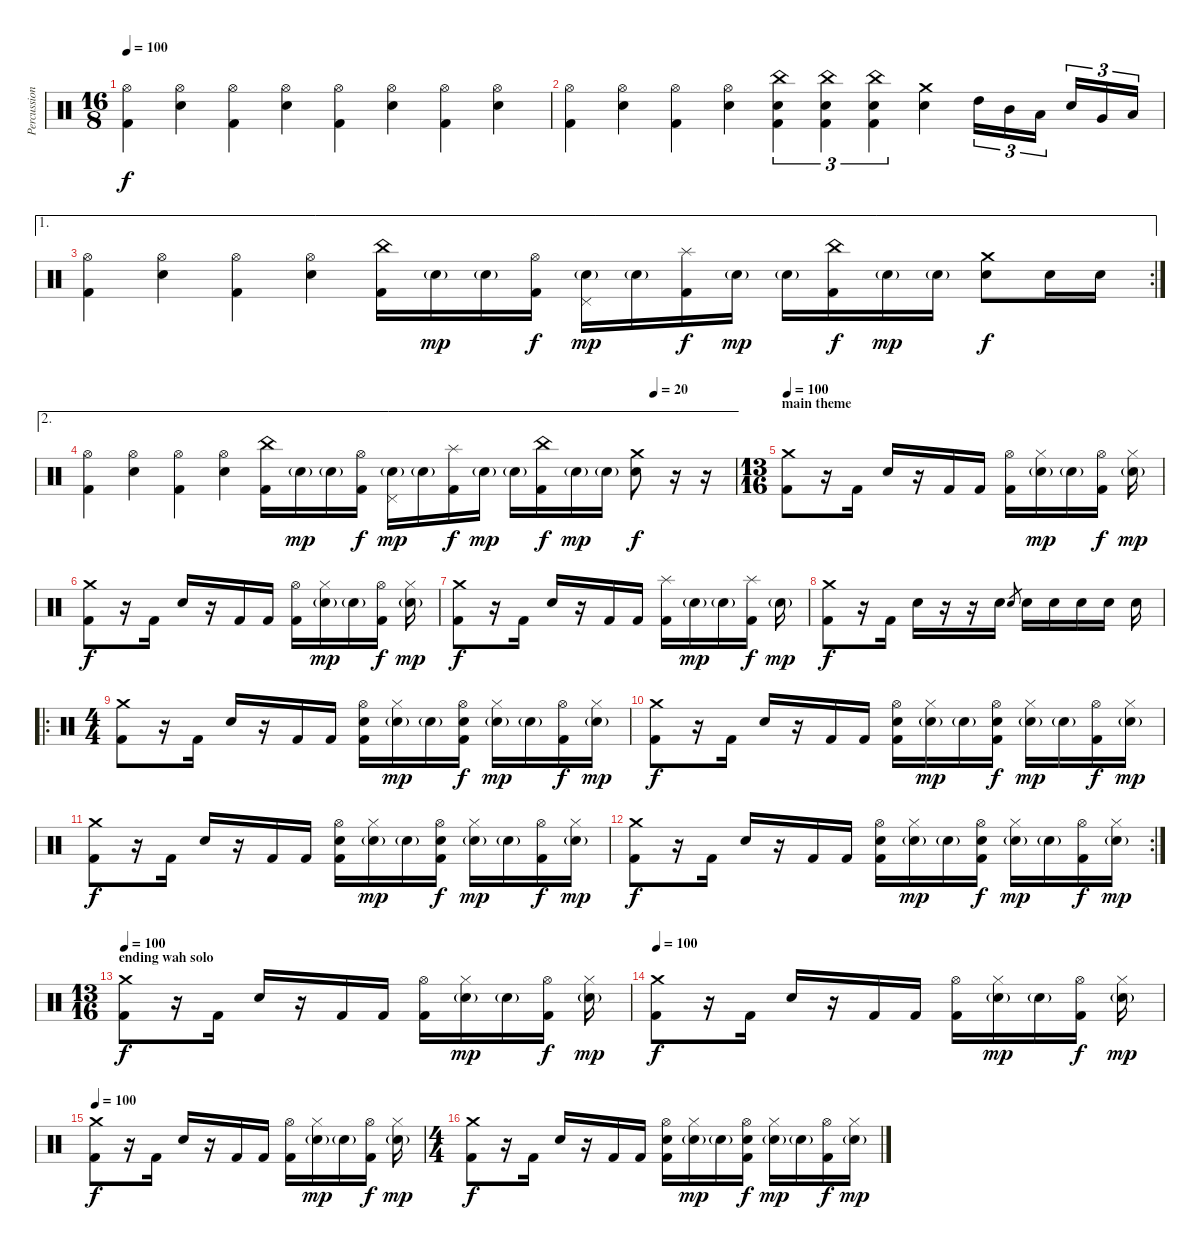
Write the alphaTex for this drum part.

\track ("Percussions" "Percussion") {instrument percussion}
\staff {score}
\articulation defaults
\ts (16 8)
\tempo 100
\clef neutral
\ks c
("Hi-Hat (open)" "Kick (hit) 2").4{dy f} ("Hi-Hat (open)" "Electric Snare (hit)").4 ("Hi-Hat (open)" "Kick (hit) 2").4 ("Hi-Hat (open)" "Electric Snare (hit)").4 ("Hi-Hat (open)" "Kick (hit) 2").4 ("Hi-Hat (open)" "Electric Snare (hit)").4 ("Hi-Hat (open)" "Kick (hit) 2").4 ("Hi-Hat (open)" "Electric Snare (hit)").4 |
("Hi-Hat (open)" "Kick (hit) 2").4 ("Hi-Hat (open)" "Electric Snare (hit)").4 ("Hi-Hat (open)" "Kick (hit) 2").4 ("Hi-Hat (open)" "Electric Snare (hit)").4 ("China (hit)" "Electric Snare (hit)" "Kick (hit) 2").4{tu (3 2)} ("China (hit)" "Electric Snare (hit)" "Kick (hit) 2").4{tu (3 2)} ("China (hit)" "Electric Snare (hit)" "Kick (hit) 2").4{tu (3 2)} ("Crash medium (hit)" "Electric Snare (hit)").4 "High Tom (hit)".16{tu (3 2)} "Mid Tom (hit)".16{tu (3 2)} "Low Tom (hit)".16{tu (3 2)} "Electric Snare (hit)".16{tu (3 2)} "Very Low Tom (hit)".16{tu (3 2)} "Low Floor Tom (hit)".16{tu (3 2)} |
\ae 1
\rc 2
("Hi-Hat (open)" "Kick (hit) 2").4 ("Hi-Hat (open)" "Electric Snare (hit)").4 ("Hi-Hat (open)" "Kick (hit) 2").4 ("Hi-Hat (open)" "Electric Snare (hit)").4 ("China (hit)" "Kick (hit) 2").16 "Electric Snare (hit)"{g}.16{dy mp} "Electric Snare (hit)"{g}.16 ("Hi-Hat (open)" "Kick (hit) 2").16{dy f} ("Pedal Hi-Hat (hit)" "Electric Snare (hit)"{g}).16{dy mp} "Electric Snare (hit)"{g}.16 ("Splash (hit)" "Kick (hit) 2").16{dy f} "Electric Snare (hit)"{g}.16{dy mp} "Electric Snare (hit)"{g}.16 ("China (hit)" "Kick (hit) 2").16{dy f} "Electric Snare (hit)"{g}.16{dy mp} "Electric Snare (hit)"{g}.16 ("Crash medium (hit)" "Electric Snare (hit)").8{dy f} "Electric Snare (hit)".16 "Electric Snare (hit)".16 |
\ae 2
\tempo (20 0.875)
("Hi-Hat (open)" "Kick (hit) 2").4 ("Hi-Hat (open)" "Electric Snare (hit)").4 ("Hi-Hat (open)" "Kick (hit) 2").4 ("Hi-Hat (open)" "Electric Snare (hit)").4 ("China (hit)" "Kick (hit) 2").16 "Electric Snare (hit)"{g}.16{dy mp} "Electric Snare (hit)"{g}.16 ("Hi-Hat (open)" "Kick (hit) 2").16{dy f} ("Pedal Hi-Hat (hit)" "Electric Snare (hit)"{g}).16{dy mp} "Electric Snare (hit)"{g}.16 ("Splash (hit)" "Kick (hit) 2").16{dy f} "Electric Snare (hit)"{g}.16{dy mp} "Electric Snare (hit)"{g}.16 ("China (hit)" "Kick (hit) 2").16{dy f} "Electric Snare (hit)"{g}.16{dy mp} "Electric Snare (hit)"{g}.16 ("Crash medium (hit)" "Electric Snare (hit)").8{dy f} r.16 r.16 |
\ts (13 16)
\section ("" "main theme")
\tempo 100
("Crash medium (hit)" "Kick (hit) 2").8 r.16 "Kick (hit) 2".16 "Electric Snare (hit)".16 r.16 "Kick (hit) 2".16 "Kick (hit) 2".16 ("Hi-Hat (open)" "Kick (hit) 2").16 ("Hi-Hat (closed)" "Electric Snare (hit)"{g}).16{dy mp} "Electric Snare (hit)"{g}.16 ("Hi-Hat (open)" "Kick (hit) 2").16{dy f} ("Hi-Hat (closed)" "Electric Snare (hit)"{g}).16{dy mp} |
("Crash medium (hit)" "Kick (hit) 2").8{dy f} r.16 "Kick (hit) 2".16 "Electric Snare (hit)".16 r.16 "Kick (hit) 2".16 "Kick (hit) 2".16 ("Hi-Hat (open)" "Kick (hit) 2").16 ("Hi-Hat (closed)" "Electric Snare (hit)"{g}).16{dy mp} "Electric Snare (hit)"{g}.16 ("Hi-Hat (open)" "Kick (hit) 2").16{dy f} ("Hi-Hat (closed)" "Electric Snare (hit)"{g}).16{dy mp} |
("Crash medium (hit)" "Kick (hit) 2").8{dy f} r.16 "Kick (hit) 2".16 "Electric Snare (hit)".16 r.16 "Kick (hit) 2".16 "Kick (hit) 2".16 ("Splash (hit)" "Kick (hit) 2").16 "Electric Snare (hit)"{g}.16{dy mp} "Electric Snare (hit)"{g}.16 ("Splash (hit)" "Kick (hit) 2").16{dy f} "Electric Snare (hit)"{g}.16{dy mp} |
("Crash medium (hit)" "Kick (hit) 2").8{dy f} r.16 "Kick (hit) 2".16 "Electric Snare (hit)".16 r.16 r.16 "Electric Snare (hit)".16 "Electric Snare (hit)".8{gr} "Electric Snare (hit)".16 "Electric Snare (hit)".16 "Electric Snare (hit)".16 "Electric Snare (hit)".16 "Electric Snare (hit)".16 |
\ro
\ts (4 4)
("Crash medium (hit)" "Kick (hit) 2").8 r.16 "Kick (hit) 2".16 "Electric Snare (hit)".16 r.16 "Kick (hit) 2".16 "Kick (hit) 2".16 ("Hi-Hat (open)" "Electric Snare (hit)" "Kick (hit) 2").16 ("Hi-Hat (closed)" "Electric Snare (hit)"{g}).16{dy mp} "Electric Snare (hit)"{g}.16 ("Hi-Hat (open)" "Electric Snare (hit)" "Kick (hit) 2").16{dy f} ("Hi-Hat (closed)" "Electric Snare (hit)"{g}).16{dy mp} "Electric Snare (hit)"{g}.16 ("Hi-Hat (open)" "Kick (hit) 2").16{dy f} ("Hi-Hat (closed)" "Electric Snare (hit)"{g}).16{dy mp} |
("Crash medium (hit)" "Kick (hit) 2").8{dy f} r.16 "Kick (hit) 2".16 "Electric Snare (hit)".16 r.16 "Kick (hit) 2".16 "Kick (hit) 2".16 ("Hi-Hat (open)" "Electric Snare (hit)" "Kick (hit) 2").16 ("Hi-Hat (closed)" "Electric Snare (hit)"{g}).16{dy mp} "Electric Snare (hit)"{g}.16 ("Hi-Hat (open)" "Electric Snare (hit)" "Kick (hit) 2").16{dy f} ("Hi-Hat (closed)" "Electric Snare (hit)"{g}).16{dy mp} "Electric Snare (hit)"{g}.16 ("Hi-Hat (open)" "Kick (hit) 2").16{dy f} ("Hi-Hat (closed)" "Electric Snare (hit)"{g}).16{dy mp} |
("Crash medium (hit)" "Kick (hit) 2").8{dy f} r.16 "Kick (hit) 2".16 "Electric Snare (hit)".16 r.16 "Kick (hit) 2".16 "Kick (hit) 2".16 ("Hi-Hat (open)" "Electric Snare (hit)" "Kick (hit) 2").16 ("Hi-Hat (closed)" "Electric Snare (hit)"{g}).16{dy mp} "Electric Snare (hit)"{g}.16 ("Hi-Hat (open)" "Electric Snare (hit)" "Kick (hit) 2").16{dy f} ("Hi-Hat (closed)" "Electric Snare (hit)"{g}).16{dy mp} "Electric Snare (hit)"{g}.16 ("Hi-Hat (open)" "Kick (hit) 2").16{dy f} ("Hi-Hat (closed)" "Electric Snare (hit)"{g}).16{dy mp} |
\rc 2
("Crash medium (hit)" "Kick (hit) 2").8{dy f} r.16 "Kick (hit) 2".16 "Electric Snare (hit)".16 r.16 "Kick (hit) 2".16 "Kick (hit) 2".16 ("Hi-Hat (open)" "Electric Snare (hit)" "Kick (hit) 2").16 ("Hi-Hat (closed)" "Electric Snare (hit)"{g}).16{dy mp} "Electric Snare (hit)"{g}.16 ("Hi-Hat (open)" "Electric Snare (hit)" "Kick (hit) 2").16{dy f} ("Hi-Hat (closed)" "Electric Snare (hit)"{g}).16{dy mp} "Electric Snare (hit)"{g}.16 ("Hi-Hat (open)" "Kick (hit) 2").16{dy f} ("Hi-Hat (closed)" "Electric Snare (hit)"{g}).16{dy mp} |
\ts (13 16)
\section ("" "ending wah solo")
\tempo 100
("Crash medium (hit)" "Kick (hit) 2").8{dy f} r.16 "Kick (hit) 2".16 "Electric Snare (hit)".16 r.16 "Kick (hit) 2".16 "Kick (hit) 2".16 ("Hi-Hat (open)" "Kick (hit) 2").16 ("Hi-Hat (closed)" "Electric Snare (hit)"{g}).16{dy mp} "Electric Snare (hit)"{g}.16 ("Hi-Hat (open)" "Kick (hit) 2").16{dy f} ("Hi-Hat (closed)" "Electric Snare (hit)"{g}).16{dy mp} |
\tempo 100
("Crash medium (hit)" "Kick (hit) 2").8{dy f} r.16 "Kick (hit) 2".16 "Electric Snare (hit)".16 r.16 "Kick (hit) 2".16 "Kick (hit) 2".16 ("Hi-Hat (open)" "Kick (hit) 2").16 ("Hi-Hat (closed)" "Electric Snare (hit)"{g}).16{dy mp} "Electric Snare (hit)"{g}.16 ("Hi-Hat (open)" "Kick (hit) 2").16{dy f} ("Hi-Hat (closed)" "Electric Snare (hit)"{g}).16{dy mp} |
\tempo 100
("Crash medium (hit)" "Kick (hit) 2").8{dy f} r.16 "Kick (hit) 2".16 "Electric Snare (hit)".16 r.16 "Kick (hit) 2".16 "Kick (hit) 2".16 ("Hi-Hat (open)" "Kick (hit) 2").16 ("Hi-Hat (closed)" "Electric Snare (hit)"{g}).16{dy mp} "Electric Snare (hit)"{g}.16 ("Hi-Hat (open)" "Kick (hit) 2").16{dy f} ("Hi-Hat (closed)" "Electric Snare (hit)"{g}).16{dy mp} |
\ts (4 4)
("Crash medium (hit)" "Kick (hit) 2").8{dy f} r.16 "Kick (hit) 2".16 "Electric Snare (hit)".16 r.16 "Kick (hit) 2".16 "Kick (hit) 2".16 ("Hi-Hat (open)" "Electric Snare (hit)" "Kick (hit) 2").16 ("Hi-Hat (closed)" "Electric Snare (hit)"{g}).16{dy mp} "Electric Snare (hit)"{g}.16 ("Hi-Hat (open)" "Electric Snare (hit)" "Kick (hit) 2").16{dy f} ("Hi-Hat (closed)" "Electric Snare (hit)"{g}).16{dy mp} "Electric Snare (hit)"{g}.16 ("Hi-Hat (open)" "Kick (hit) 2").16{dy f} ("Hi-Hat (closed)" "Electric Snare (hit)"{g}).16{dy mp}
